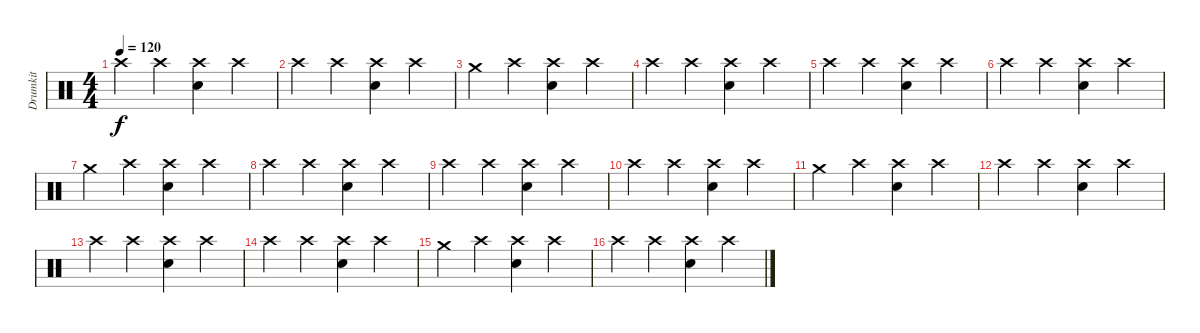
\track ("Drumkit" "Drumkit") {instrument percussion}
\staff {score}
\articulation defaults
\ts (4 4)
\tempo 120
\clef neutral
\ks c "Crash high (hit)".4{dy f} "Crash high (hit)".4
("Crash high (hit)" "Electric Snare (hit)").4 "Crash high (hit)".4 |
"Crash high (hit)".4 "Crash high (hit)".4 ("Crash high (hit)" "Electric Snare (hit)").4 "Crash high (hit)".4 |
"Crash medium (hit)".4 "Crash high (hit)".4 ("Crash high (hit)" "Electric Snare (hit)").4 "Crash high (hit)".4 |
"Crash high (hit)".4 "Crash high (hit)".4 ("Crash high (hit)" "Electric Snare (hit)").4 "Crash high (hit)".4 |
"Crash high (hit)".4 "Crash high (hit)".4 ("Crash high (hit)" "Electric Snare (hit)").4 "Crash high (hit)".4 |
"Crash high (hit)".4 "Crash high (hit)".4 ("Crash high (hit)" "Electric Snare (hit)").4 "Crash high (hit)".4 |
"Crash medium (hit)".4 "Crash high (hit)".4 ("Crash high (hit)" "Electric Snare (hit)").4 "Crash high (hit)".4 |
"Crash high (hit)".4 "Crash high (hit)".4 ("Crash high (hit)" "Electric Snare (hit)").4 "Crash high (hit)".4 |
"Crash high (hit)".4 "Crash high (hit)".4 ("Crash high (hit)" "Electric Snare (hit)").4 "Crash high (hit)".4 |
"Crash high (hit)".4 "Crash high (hit)".4 ("Crash high (hit)" "Electric Snare (hit)").4 "Crash high (hit)".4 |
"Crash medium (hit)".4 "Crash high (hit)".4 ("Crash high (hit)" "Electric Snare (hit)").4 "Crash high (hit)".4 |
"Crash high (hit)".4 "Crash high (hit)".4 ("Crash high (hit)" "Electric Snare (hit)").4 "Crash high (hit)".4 |
"Crash high (hit)".4 "Crash high (hit)".4 ("Crash high (hit)" "Electric Snare (hit)").4 "Crash high (hit)".4 |
"Crash high (hit)".4 "Crash high (hit)".4 ("Crash high (hit)" "Electric Snare (hit)").4 "Crash high (hit)".4 |
"Crash medium (hit)".4 "Crash high (hit)".4 ("Crash high (hit)" "Electric Snare (hit)").4 "Crash high (hit)".4 |
"Crash high (hit)".4 "Crash high (hit)".4 ("Crash high (hit)" "Electric Snare (hit)").4 "Crash high (hit)".4
